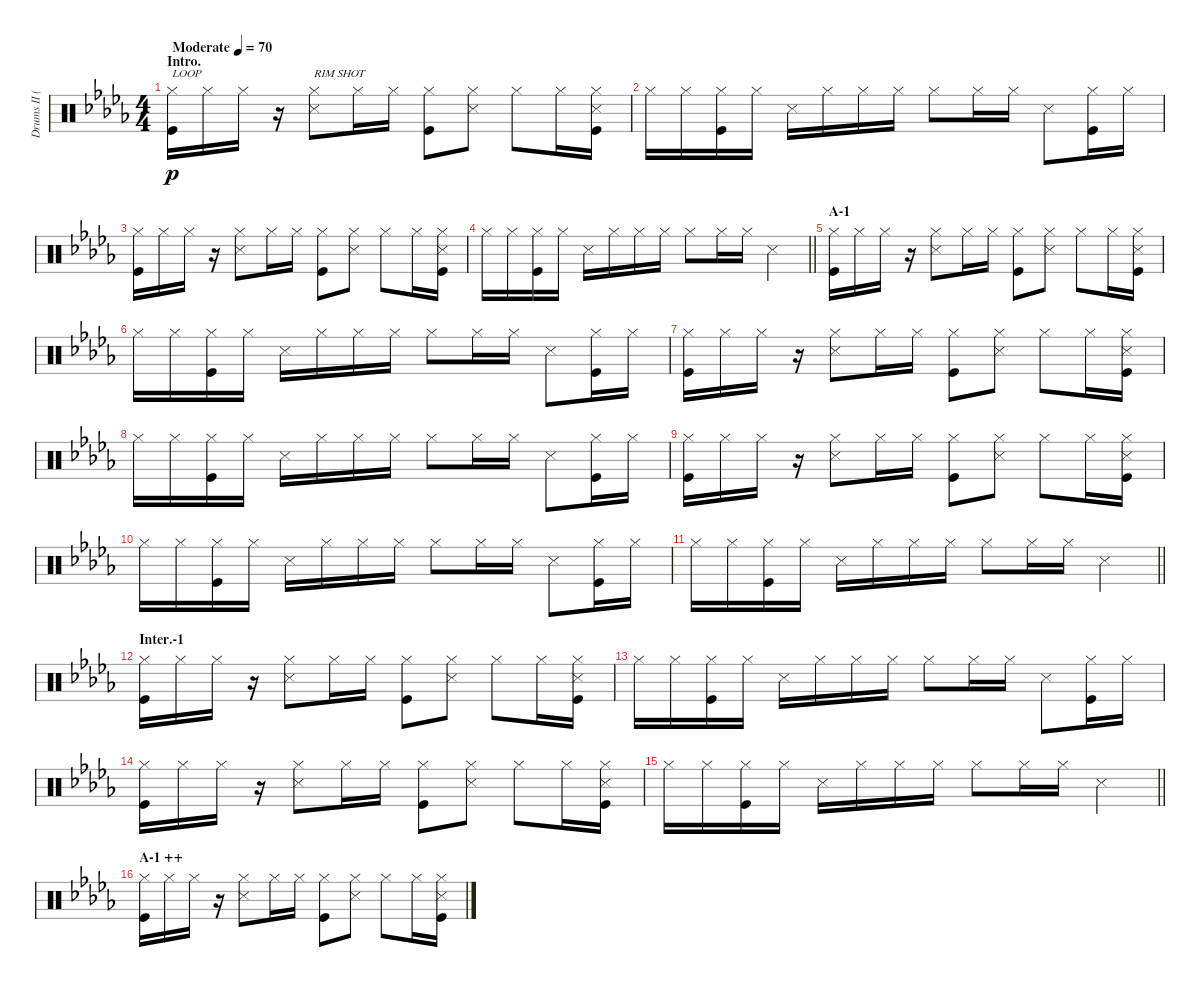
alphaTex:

\track ("Drums II (Tainaka Ritsu)" "Drums II (") {instrument percussion}
\staff {score}
\articulation defaults
\ts (4 4)
\section ("" "Intro.")
\tempo (70 "Moderate")
\clef neutral
\ks db
("Hi-Hat (closed)" "Kick (hit)").16{txt "LOOP" dy p} "Hi-Hat (closed)".16 "Hi-Hat (closed)".16 r.16 ("Hi-Hat (closed)" "Snare (side stick) 3").8{txt "RIM SHOT"} "Hi-Hat (closed)".16 "Hi-Hat (closed)".16 ("Hi-Hat (closed)" "Kick (hit)").8 ("Hi-Hat (closed)" "Snare (side stick) 3").8 "Hi-Hat (closed)".8 "Hi-Hat (closed)".16 ("Hi-Hat (closed)" "Snare (side stick) 3" "Kick (hit)").16 |
"Hi-Hat (closed)".16 "Hi-Hat (closed)".16 ("Hi-Hat (closed)" "Kick (hit)").16 "Hi-Hat (closed)".16 "Snare (side stick) 3".16 "Hi-Hat (closed)".16 "Hi-Hat (closed)".16 "Hi-Hat (closed)".16 "Hi-Hat (closed)".8 "Hi-Hat (closed)".16 "Hi-Hat (closed)".16 "Snare (side stick) 3".8 ("Hi-Hat (closed)" "Kick (hit)").16 "Hi-Hat (closed)".16 |
("Hi-Hat (closed)" "Kick (hit)").16 "Hi-Hat (closed)".16 "Hi-Hat (closed)".16 r.16 ("Hi-Hat (closed)" "Snare (side stick) 3").8 "Hi-Hat (closed)".16 "Hi-Hat (closed)".16 ("Hi-Hat (closed)" "Kick (hit)").8 ("Hi-Hat (closed)" "Snare (side stick) 3").8 "Hi-Hat (closed)".8 "Hi-Hat (closed)".16 ("Hi-Hat (closed)" "Snare (side stick) 3" "Kick (hit)").16 |
\barLineRight lightlight "Hi-Hat (closed)".16 "Hi-Hat (closed)".16
("Hi-Hat (closed)" "Kick (hit)").16 "Hi-Hat (closed)".16 "Snare (side stick) 3".16 "Hi-Hat (closed)".16 "Hi-Hat (closed)".16 "Hi-Hat (closed)".16 "Hi-Hat (closed)".8 "Hi-Hat (closed)".16 "Hi-Hat (closed)".16 "Snare (side stick) 3".4 |
\section ("" "A-1")
("Hi-Hat (closed)" "Kick (hit)").16 "Hi-Hat (closed)".16 "Hi-Hat (closed)".16 r.16 ("Hi-Hat (closed)" "Snare (side stick) 3").8 "Hi-Hat (closed)".16 "Hi-Hat (closed)".16 ("Hi-Hat (closed)" "Kick (hit)").8 ("Hi-Hat (closed)" "Snare (side stick) 3").8 "Hi-Hat (closed)".8 "Hi-Hat (closed)".16 ("Hi-Hat (closed)" "Snare (side stick) 3" "Kick (hit)").16 |
"Hi-Hat (closed)".16 "Hi-Hat (closed)".16 ("Hi-Hat (closed)" "Kick (hit)").16 "Hi-Hat (closed)".16 "Snare (side stick) 3".16 "Hi-Hat (closed)".16 "Hi-Hat (closed)".16 "Hi-Hat (closed)".16 "Hi-Hat (closed)".8 "Hi-Hat (closed)".16 "Hi-Hat (closed)".16 "Snare (side stick) 3".8 ("Hi-Hat (closed)" "Kick (hit)").16 "Hi-Hat (closed)".16 |
("Hi-Hat (closed)" "Kick (hit)").16 "Hi-Hat (closed)".16 "Hi-Hat (closed)".16 r.16 ("Hi-Hat (closed)" "Snare (side stick) 3").8 "Hi-Hat (closed)".16 "Hi-Hat (closed)".16 ("Hi-Hat (closed)" "Kick (hit)").8 ("Hi-Hat (closed)" "Snare (side stick) 3").8 "Hi-Hat (closed)".8 "Hi-Hat (closed)".16 ("Hi-Hat (closed)" "Snare (side stick) 3" "Kick (hit)").16 |
"Hi-Hat (closed)".16 "Hi-Hat (closed)".16 ("Hi-Hat (closed)" "Kick (hit)").16 "Hi-Hat (closed)".16 "Snare (side stick) 3".16 "Hi-Hat (closed)".16 "Hi-Hat (closed)".16 "Hi-Hat (closed)".16 "Hi-Hat (closed)".8 "Hi-Hat (closed)".16 "Hi-Hat (closed)".16 "Snare (side stick) 3".8 ("Hi-Hat (closed)" "Kick (hit)").16 "Hi-Hat (closed)".16 |
("Hi-Hat (closed)" "Kick (hit)").16 "Hi-Hat (closed)".16 "Hi-Hat (closed)".16 r.16 ("Hi-Hat (closed)" "Snare (side stick) 3").8 "Hi-Hat (closed)".16 "Hi-Hat (closed)".16 ("Hi-Hat (closed)" "Kick (hit)").8 ("Hi-Hat (closed)" "Snare (side stick) 3").8 "Hi-Hat (closed)".8 "Hi-Hat (closed)".16 ("Hi-Hat (closed)" "Snare (side stick) 3" "Kick (hit)").16 |
"Hi-Hat (closed)".16 "Hi-Hat (closed)".16 ("Hi-Hat (closed)" "Kick (hit)").16 "Hi-Hat (closed)".16 "Snare (side stick) 3".16 "Hi-Hat (closed)".16 "Hi-Hat (closed)".16 "Hi-Hat (closed)".16 "Hi-Hat (closed)".8 "Hi-Hat (closed)".16 "Hi-Hat (closed)".16 "Snare (side stick) 3".8 ("Hi-Hat (closed)" "Kick (hit)").16 "Hi-Hat (closed)".16 |
\barLineRight lightlight "Hi-Hat (closed)".16 "Hi-Hat (closed)".16
("Hi-Hat (closed)" "Kick (hit)").16 "Hi-Hat (closed)".16 "Snare (side stick) 3".16 "Hi-Hat (closed)".16 "Hi-Hat (closed)".16 "Hi-Hat (closed)".16 "Hi-Hat (closed)".8 "Hi-Hat (closed)".16 "Hi-Hat (closed)".16 "Snare (side stick) 3".4 |
\section ("" "Inter.-1")
("Hi-Hat (closed)" "Kick (hit)").16 "Hi-Hat (closed)".16 "Hi-Hat (closed)".16 r.16 ("Hi-Hat (closed)" "Snare (side stick) 3").8 "Hi-Hat (closed)".16 "Hi-Hat (closed)".16 ("Hi-Hat (closed)" "Kick (hit)").8 ("Hi-Hat (closed)" "Snare (side stick) 3").8 "Hi-Hat (closed)".8 "Hi-Hat (closed)".16 ("Hi-Hat (closed)" "Snare (side stick) 3" "Kick (hit)").16 |
"Hi-Hat (closed)".16 "Hi-Hat (closed)".16 ("Hi-Hat (closed)" "Kick (hit)").16 "Hi-Hat (closed)".16 "Snare (side stick) 3".16 "Hi-Hat (closed)".16 "Hi-Hat (closed)".16 "Hi-Hat (closed)".16 "Hi-Hat (closed)".8 "Hi-Hat (closed)".16 "Hi-Hat (closed)".16 "Snare (side stick) 3".8 ("Hi-Hat (closed)" "Kick (hit)").16 "Hi-Hat (closed)".16 |
("Hi-Hat (closed)" "Kick (hit)").16 "Hi-Hat (closed)".16 "Hi-Hat (closed)".16 r.16 ("Hi-Hat (closed)" "Snare (side stick) 3").8 "Hi-Hat (closed)".16 "Hi-Hat (closed)".16 ("Hi-Hat (closed)" "Kick (hit)").8 ("Hi-Hat (closed)" "Snare (side stick) 3").8 "Hi-Hat (closed)".8 "Hi-Hat (closed)".16 ("Hi-Hat (closed)" "Snare (side stick) 3" "Kick (hit)").16 |
\barLineRight lightlight "Hi-Hat (closed)".16 "Hi-Hat (closed)".16
("Hi-Hat (closed)" "Kick (hit)").16 "Hi-Hat (closed)".16 "Snare (side stick) 3".16 "Hi-Hat (closed)".16 "Hi-Hat (closed)".16 "Hi-Hat (closed)".16 "Hi-Hat (closed)".8 "Hi-Hat (closed)".16 "Hi-Hat (closed)".16 "Snare (side stick) 3".4 |
\section ("" "A-1 ++")
("Hi-Hat (closed)" "Kick (hit)").16 "Hi-Hat (closed)".16 "Hi-Hat (closed)".16 r.16 ("Hi-Hat (closed)" "Snare (side stick) 3").8 "Hi-Hat (closed)".16 "Hi-Hat (closed)".16 ("Hi-Hat (closed)" "Kick (hit)").8 ("Hi-Hat (closed)" "Snare (side stick) 3").8 "Hi-Hat (closed)".8 "Hi-Hat (closed)".16 ("Hi-Hat (closed)" "Snare (side stick) 3" "Kick (hit)").16
